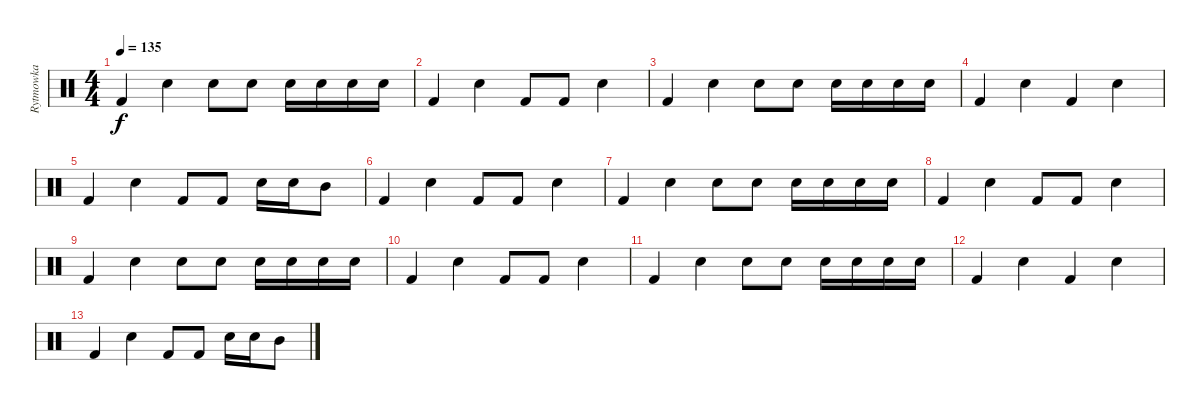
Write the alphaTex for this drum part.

\track ("Rytmowka" "Rytmowka") {instrument percussion}
\staff {score}
\articulation defaults
\ts (4 4)
\tempo 135
\clef neutral
\ks c "Kick (hit) 2".4{dy f} "Snare (hit) 2".4 "Snare (hit) 2".8 "Snare (hit) 2".8 "Snare (hit) 2".16 "Snare (hit) 2".16 "Snare (hit) 2".16 "Snare (hit) 2".16
|
"Kick (hit) 2".4 "Snare (hit) 2".4 "Kick (hit) 2".8 "Kick (hit) 2".8 "Snare (hit) 2".4 |
"Kick (hit) 2".4 "Snare (hit) 2".4 "Snare (hit) 2".8 "Snare (hit) 2".8 "Snare (hit) 2".16 "Snare (hit) 2".16 "Snare (hit) 2".16 "Snare (hit) 2".16 |
"Kick (hit) 2".4 "Snare (hit) 2".4 "Kick (hit) 2".4 "Snare (hit) 2".4 |
"Kick (hit) 2".4 "Snare (hit) 2".4 "Kick (hit) 2".8 "Kick (hit) 2".8 "Snare (hit) 2".16 "Snare (hit) 2".16 "Mid Tom (hit)".8 |
"Kick (hit) 2".4 "Snare (hit) 2".4 "Kick (hit) 2".8 "Kick (hit) 2".8 "Snare (hit) 2".4 |
"Kick (hit) 2".4 "Snare (hit) 2".4 "Snare (hit) 2".8 "Snare (hit) 2".8 "Snare (hit) 2".16 "Snare (hit) 2".16 "Snare (hit) 2".16 "Snare (hit) 2".16 |
"Kick (hit) 2".4 "Snare (hit) 2".4 "Kick (hit) 2".8 "Kick (hit) 2".8 "Snare (hit) 2".4 |
"Kick (hit) 2".4 "Snare (hit) 2".4 "Snare (hit) 2".8 "Snare (hit) 2".8 "Snare (hit) 2".16 "Snare (hit) 2".16 "Snare (hit) 2".16 "Snare (hit) 2".16 |
"Kick (hit) 2".4 "Snare (hit) 2".4 "Kick (hit) 2".8 "Kick (hit) 2".8 "Snare (hit) 2".4 |
"Kick (hit) 2".4 "Snare (hit) 2".4 "Snare (hit) 2".8 "Snare (hit) 2".8 "Snare (hit) 2".16 "Snare (hit) 2".16 "Snare (hit) 2".16 "Snare (hit) 2".16 |
"Kick (hit) 2".4 "Snare (hit) 2".4 "Kick (hit) 2".4 "Snare (hit) 2".4 |
"Kick (hit) 2".4 "Snare (hit) 2".4 "Kick (hit) 2".8 "Kick (hit) 2".8 "Snare (hit) 2".16 "Snare (hit) 2".16 "Mid Tom (hit)".8
